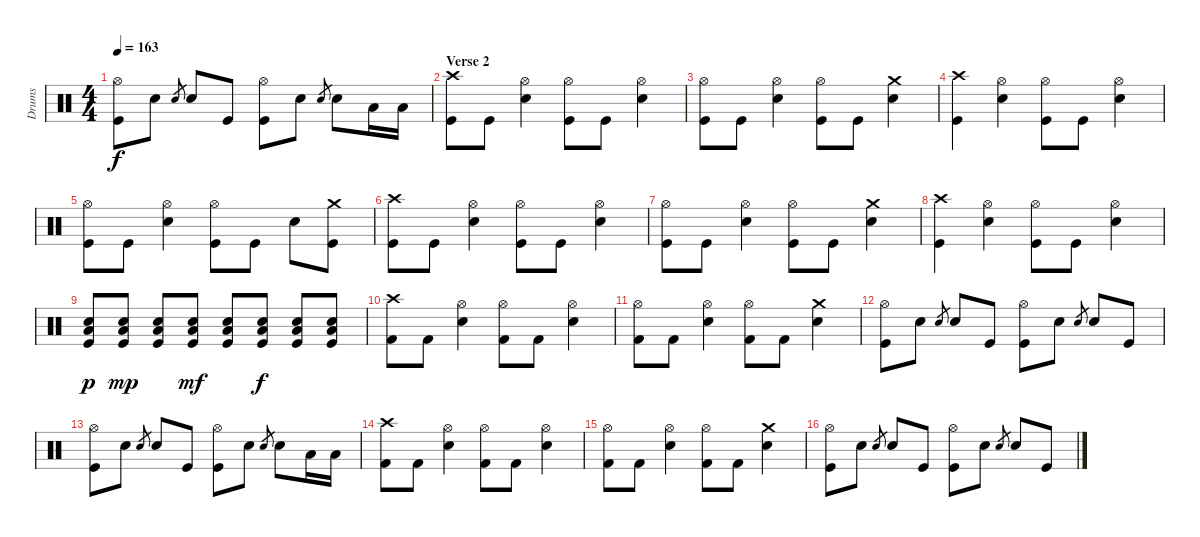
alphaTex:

\track ("Drums" "Drums") {instrument percussion}
\staff {score}
\articulation defaults
\ts (4 4)
\tempo 163
\clef neutral
\ks c
("Hi-Hat (open)" "Kick (hit)").8{dy f} "Electric Snare (hit)".8 "Electric Snare (hit)".8{gr} "Electric Snare (hit)".8 "Kick (hit)".8 ("Hi-Hat (open)" "Kick (hit)").8 "Electric Snare (hit)".8 "Electric Snare (hit)".8{gr} "Electric Snare (hit)".8 "Low Tom (hit)".16 "Low Tom (hit)".16 |
\section ("" "Verse 2")
("Crash high (hit)" "Kick (hit)").8 "Kick (hit)".8 ("Hi-Hat (open)" "Electric Snare (hit)").4 ("Hi-Hat (open)" "Kick (hit)").8 "Kick (hit)".8 ("Hi-Hat (open)" "Electric Snare (hit)").4 |
("Hi-Hat (open)" "Kick (hit)").8 "Kick (hit)".8 ("Hi-Hat (open)" "Electric Snare (hit)").4 ("Hi-Hat (open)" "Kick (hit)").8 "Kick (hit)".8 ("Crash medium (hit)" "Electric Snare (hit)").4 |
("Crash high (hit)" "Kick (hit)").4 ("Hi-Hat (open)" "Electric Snare (hit)").4 ("Hi-Hat (open)" "Kick (hit)").8 "Kick (hit)".8 ("Hi-Hat (open)" "Electric Snare (hit)").4 |
("Hi-Hat (open)" "Kick (hit)").8 "Kick (hit)".8 ("Hi-Hat (open)" "Electric Snare (hit)").4 ("Hi-Hat (open)" "Kick (hit)").8 "Kick (hit)".8 "Electric Snare (hit)".8 ("Crash medium (hit)" "Kick (hit)").8 |
("Crash high (hit)" "Kick (hit)").8 "Kick (hit)".8 ("Hi-Hat (open)" "Electric Snare (hit)").4 ("Hi-Hat (open)" "Kick (hit)").8 "Kick (hit)".8 ("Hi-Hat (open)" "Electric Snare (hit)").4 |
("Hi-Hat (open)" "Kick (hit)").8 "Kick (hit)".8 ("Hi-Hat (open)" "Electric Snare (hit)").4 ("Hi-Hat (open)" "Kick (hit)").8 "Kick (hit)".8 ("Crash medium (hit)" "Electric Snare (hit)").4 |
("Crash high (hit)" "Kick (hit)").4 ("Hi-Hat (open)" "Electric Snare (hit)").4 ("Hi-Hat (open)" "Kick (hit)").8 "Kick (hit)".8 ("Hi-Hat (open)" "Electric Snare (hit)").4 |
("Low Tom (hit)" "Electric Snare (hit)" "Kick (hit)").8{dy p} ("Low Tom (hit)" "Electric Snare (hit)" "Kick (hit)").8{dy mp} ("Low Tom (hit)" "Electric Snare (hit)" "Kick (hit)").8 ("Low Tom (hit)" "Electric Snare (hit)" "Kick (hit)").8{dy mf} ("Low Tom (hit)" "Electric Snare (hit)" "Kick (hit)").8 ("Low Tom (hit)" "Electric Snare (hit)" "Kick (hit)").8{dy f} ("Low Tom (hit)" "Electric Snare (hit)" "Kick (hit)").8 ("Low Tom (hit)" "Electric Snare (hit)" "Kick (hit)").8 |
("Crash high (hit)" "Kick (hit) 2").8 "Kick (hit) 2".8 ("Hi-Hat (open)" "Electric Snare (hit)").4 ("Hi-Hat (open)" "Kick (hit) 2").8 "Kick (hit) 2".8 ("Hi-Hat (open)" "Electric Snare (hit)").4 |
("Hi-Hat (open)" "Kick (hit) 2").8 "Kick (hit) 2".8 ("Hi-Hat (open)" "Electric Snare (hit)").4 ("Hi-Hat (open)" "Kick (hit) 2").8 "Kick (hit) 2".8 ("Crash medium (hit)" "Electric Snare (hit)").4 |
("Hi-Hat (open)" "Kick (hit)").8 "Electric Snare (hit)".8 "Electric Snare (hit)".8{gr} "Electric Snare (hit)".8 "Kick (hit)".8 ("Hi-Hat (open)" "Kick (hit)").8 "Electric Snare (hit)".8 "Electric Snare (hit)".8{gr} "Electric Snare (hit)".8 "Kick (hit)".8 |
("Hi-Hat (open)" "Kick (hit)").8 "Electric Snare (hit)".8 "Electric Snare (hit)".8{gr} "Electric Snare (hit)".8 "Kick (hit)".8 ("Hi-Hat (open)" "Kick (hit)").8 "Electric Snare (hit)".8 "Electric Snare (hit)".8{gr} "Electric Snare (hit)".8 "Low Tom (hit)".16 "Low Tom (hit)".16 |
("Crash high (hit)" "Kick (hit) 2").8 "Kick (hit) 2".8 ("Hi-Hat (open)" "Electric Snare (hit)").4 ("Hi-Hat (open)" "Kick (hit) 2").8 "Kick (hit) 2".8 ("Hi-Hat (open)" "Electric Snare (hit)").4 |
("Hi-Hat (open)" "Kick (hit) 2").8 "Kick (hit) 2".8 ("Hi-Hat (open)" "Electric Snare (hit)").4 ("Hi-Hat (open)" "Kick (hit) 2").8 "Kick (hit) 2".8 ("Crash medium (hit)" "Electric Snare (hit)").4 |
("Hi-Hat (open)" "Kick (hit)").8 "Electric Snare (hit)".8 "Electric Snare (hit)".8{gr} "Electric Snare (hit)".8 "Kick (hit)".8 ("Hi-Hat (open)" "Kick (hit)").8 "Electric Snare (hit)".8 "Electric Snare (hit)".8{gr} "Electric Snare (hit)".8 "Kick (hit)".8
